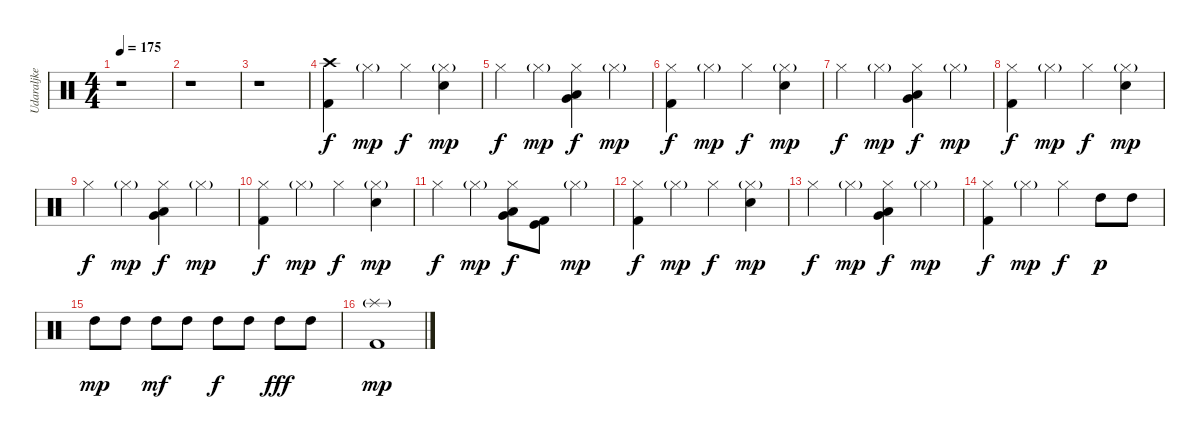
\track ("Udaraljke" "Udaraljke") {instrument percussion}
\staff {score}
\articulation defaults
\ts (4 4)
\tempo 175
\clef neutral
\ks c
r.1{dy f} |
r.1 |
r.1 |
("Crash high (hit)" "Kick (hit) 2").4 "Hi-Hat (closed)"{g}.4{dy mp} "Hi-Hat (closed)".4{dy f} ("Hi-Hat (closed)"{g} "Electric Snare (hit)").4{dy mp} |
"Hi-Hat (closed)".4{dy f} "Hi-Hat (closed)"{g}.4{dy mp} ("Hi-Hat (closed)" "Low Tom (hit)" "Very Low Tom (hit)").4{dy f} "Hi-Hat (closed)"{g}.4{dy mp} |
("Hi-Hat (closed)" "Kick (hit) 2").4{dy f} "Hi-Hat (closed)"{g}.4{dy mp} "Hi-Hat (closed)".4{dy f} ("Hi-Hat (closed)"{g} "Electric Snare (hit)").4{dy mp} |
"Hi-Hat (closed)".4{dy f} "Hi-Hat (closed)"{g}.4{dy mp} ("Hi-Hat (closed)" "Low Tom (hit)" "Very Low Tom (hit)").4{dy f} "Hi-Hat (closed)"{g}.4{dy mp} |
("Hi-Hat (closed)" "Kick (hit) 2").4{dy f} "Hi-Hat (closed)"{g}.4{dy mp} "Hi-Hat (closed)".4{dy f} ("Hi-Hat (closed)"{g} "Electric Snare (hit)").4{dy mp} |
"Hi-Hat (closed)".4{dy f} "Hi-Hat (closed)"{g}.4{dy mp} ("Hi-Hat (closed)" "Low Tom (hit)" "Very Low Tom (hit)").4{dy f} "Hi-Hat (closed)"{g}.4{dy mp} |
("Hi-Hat (closed)" "Kick (hit) 2").4{dy f} "Hi-Hat (closed)"{g}.4{dy mp} "Hi-Hat (closed)".4{dy f} ("Hi-Hat (closed)"{g} "Electric Snare (hit)").4{dy mp} |
"Hi-Hat (closed)".4{dy f} "Hi-Hat (closed)"{g}.4{dy mp} ("Hi-Hat (closed)" "Low Tom (hit)" "Very Low Tom (hit)").8{dy f} ("Kick (hit)" "Kick (hit) 2").8 "Hi-Hat (closed)"{g}.4{dy mp} |
("Hi-Hat (closed)" "Kick (hit) 2").4{dy f} "Hi-Hat (closed)"{g}.4{dy mp} "Hi-Hat (closed)".4{dy f} ("Hi-Hat (closed)"{g} "Electric Snare (hit)").4{dy mp} |
"Hi-Hat (closed)".4{dy f} "Hi-Hat (closed)"{g}.4{dy mp} ("Hi-Hat (closed)" "Low Tom (hit)" "Very Low Tom (hit)").4{dy f} "Hi-Hat (closed)"{g}.4{dy mp} |
("Hi-Hat (closed)" "Kick (hit) 2").4{dy f} "Hi-Hat (closed)"{g}.4{dy mp} "Hi-Hat (closed)".4{dy f} "High Tom (hit)".8{dy p} "High Tom (hit)".8 |
"High Tom (hit)".8{dy mp} "High Tom (hit)".8 "High Tom (hit)".8{dy mf} "High Tom (hit)".8 "High Tom (hit)".8{dy f} "High Tom (hit)".8 "High Tom (hit)".8{dy fff} "High Tom (hit)".8 |
("Splash (hit)"{g} "Kick (hit) 2").1{dy mp}
